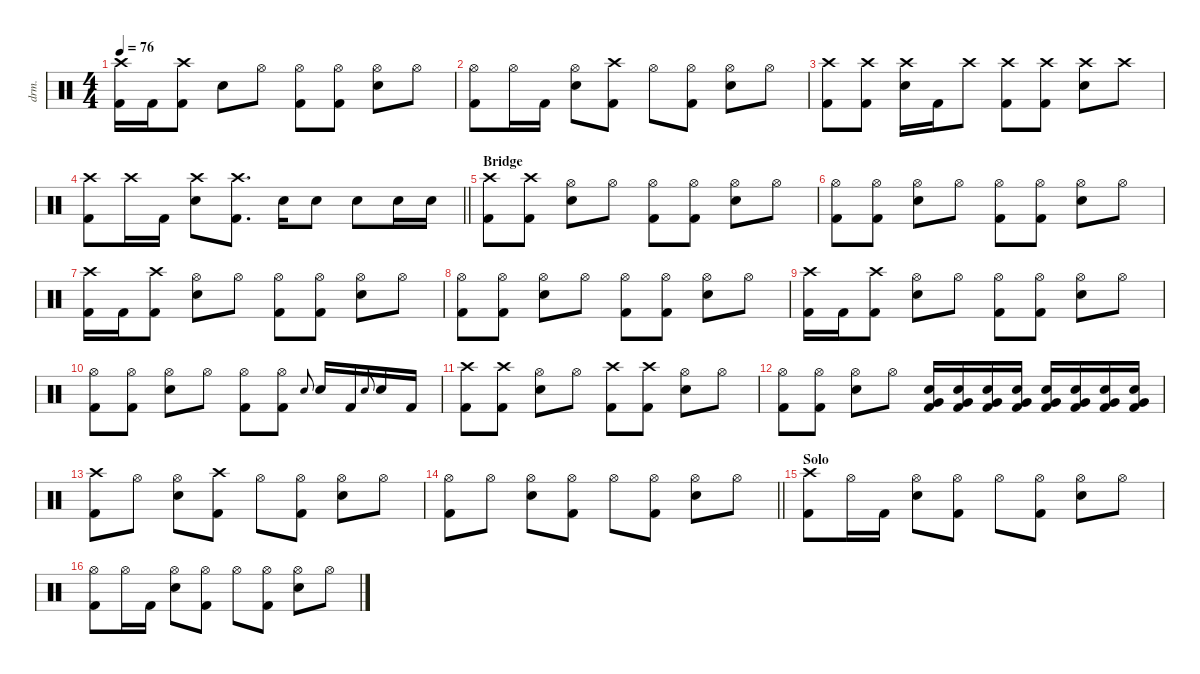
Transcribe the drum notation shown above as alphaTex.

\defaultSystemsLayout 4
\hideDynamics
\bracketExtendMode nobrackets
\otherSystemsTrackNameOrientation horizontal
\track ("Drums" "drm.") {instrument percussion}
\staff {score}
\articulation defaults
\ts (4 4)
\tempo 76
\clef neutral
\ks c
("Crash high (hit)" "Kick (hit) 2").16{dy f beam Down} "Kick (hit) 2".16{beam Down} ("Crash high (hit)" "Kick (hit) 2").8{beam Down} "Snare (hit) 2".8{beam Down} "Hi-Hat (open)".8{beam Down} ("Hi-Hat (open)" "Kick (hit) 2").8{beam Down} ("Hi-Hat (open)" "Kick (hit) 2").8{beam Down} ("Hi-Hat (open)" "Snare (hit) 2").8{beam Down} "Hi-Hat (open)".8{beam Down} |
("Hi-Hat (open)" "Kick (hit) 2").8{beam Down} "Hi-Hat (open)".16{beam Down} "Kick (hit) 2".16{beam Down} ("Hi-Hat (open)" "Snare (hit) 2").8{beam Down} ("Crash high (hit)" "Kick (hit) 2").8{beam Down} "Hi-Hat (open)".8{beam Down} ("Hi-Hat (open)" "Kick (hit) 2").8{beam Down} ("Hi-Hat (open)" "Snare (hit) 2").8{beam Down} "Hi-Hat (open)".8{beam Down} |
("Crash high (hit)" "Kick (hit) 2").8{beam Down} ("Crash high (hit)" "Kick (hit) 2").8{beam Down} ("Crash high (hit)" "Snare (hit) 2").16{beam Down} "Kick (hit) 2".16{beam Down} "Crash high (hit)".8{beam Down} ("Crash high (hit)" "Kick (hit) 2").8{beam Down} ("Crash high (hit)" "Kick (hit) 2").8{beam Down} ("Crash high (hit)" "Snare (hit) 2").8{beam Down} "Crash high (hit)".8{beam Down} |
\barLineRight lightlight
("Crash high (hit)" "Kick (hit) 2").8{beam Down} "Crash high (hit)".16{beam Down} "Kick (hit) 2".16{beam Down} ("Crash high (hit)" "Snare (hit) 2").8{beam Down} ("Crash high (hit)" "Kick (hit) 2").8{d beam Down} "Snare (hit) 2".16{beam Down} "Snare (hit) 2".8{beam Down} "Snare (hit) 2".8{beam Down} "Snare (hit) 2".16{beam Down} "Snare (hit) 2".16{beam Down} |
\section ("" "Bridge")
("Crash high (hit)" "Kick (hit) 2").8{beam Down} ("Crash high (hit)" "Kick (hit) 2").8{beam Down} ("Hi-Hat (open)" "Snare (hit) 2").8{beam Down} "Hi-Hat (open)".8{beam Down} ("Hi-Hat (open)" "Kick (hit) 2").8{beam Down} ("Hi-Hat (open)" "Kick (hit) 2").8{beam Down} ("Hi-Hat (open)" "Snare (hit) 2").8{beam Down} "Hi-Hat (open)".8{beam Down} |
("Hi-Hat (open)" "Kick (hit) 2").8{beam Down} ("Hi-Hat (open)" "Kick (hit) 2").8{beam Down} ("Hi-Hat (open)" "Snare (hit) 2").8{beam Down} "Hi-Hat (open)".8{beam Down} ("Hi-Hat (open)" "Kick (hit) 2").8{beam Down} ("Hi-Hat (open)" "Kick (hit) 2").8{beam Down} ("Hi-Hat (open)" "Snare (hit) 2").8{beam Down} "Hi-Hat (open)".8{beam Down} |
("Crash high (hit)" "Kick (hit) 2").16{beam Down} "Kick (hit) 2".16{beam Down} ("Crash high (hit)" "Kick (hit) 2").8{beam Down} ("Hi-Hat (open)" "Snare (hit) 2").8{beam Down} "Hi-Hat (open)".8{beam Down} ("Hi-Hat (open)" "Kick (hit) 2").8{beam Down} ("Hi-Hat (open)" "Kick (hit) 2").8{beam Down} ("Hi-Hat (open)" "Snare (hit) 2").8{beam Down} "Hi-Hat (open)".8{beam Down} |
("Hi-Hat (open)" "Kick (hit) 2").8{beam Down} ("Hi-Hat (open)" "Kick (hit) 2").8{beam Down} ("Hi-Hat (open)" "Snare (hit) 2").8{beam Down} "Hi-Hat (open)".8{beam Down} ("Hi-Hat (open)" "Kick (hit) 2").8{beam Down} ("Hi-Hat (open)" "Kick (hit) 2").8{beam Down} ("Hi-Hat (open)" "Snare (hit) 2").8{beam Down} "Hi-Hat (open)".8{beam Down} |
("Crash high (hit)" "Kick (hit) 2").16{beam Down} "Kick (hit) 2".16{beam Down} ("Crash high (hit)" "Kick (hit) 2").8{beam Down} ("Hi-Hat (open)" "Snare (hit) 2").8{beam Down} "Hi-Hat (open)".8{beam Down} ("Hi-Hat (open)" "Kick (hit) 2").8{beam Down} ("Hi-Hat (open)" "Kick (hit) 2").8{beam Down} ("Hi-Hat (open)" "Snare (hit) 2").8{beam Down} "Hi-Hat (open)".8{beam Down} |
("Hi-Hat (open)" "Kick (hit) 2").8{beam Down} ("Hi-Hat (open)" "Kick (hit) 2").8{beam Down} ("Hi-Hat (open)" "Snare (hit) 2").8{beam Down} "Hi-Hat (open)".8{beam Down} ("Hi-Hat (open)" "Kick (hit) 2").8{beam Down} ("Hi-Hat (open)" "Kick (hit) 2").8{beam Down} "Snare (hit) 2".8{gr onbeat dy mf beam Up} "Snare (hit) 2".16{dy f beam Up} "Kick (hit) 2".16{dy fff beam Up} "Snare (hit) 2".8{gr onbeat dy ff beam Up} "Snare (hit) 2".16{dy f beam Up} "Kick (hit) 2".16{dy fff beam Up} |
("Crash high (hit)" "Kick (hit) 2").8{dy f beam Down} ("Crash high (hit)" "Kick (hit) 2").8{beam Down} ("Hi-Hat (open)" "Snare (hit) 2").8{beam Down} "Hi-Hat (open)".8{beam Down} ("Crash high (hit)" "Kick (hit) 2").8{beam Down} ("Crash high (hit)" "Kick (hit) 2").8{beam Down} ("Hi-Hat (open)" "Snare (hit) 2").8{beam Down} "Hi-Hat (open)".8{beam Down} |
("Hi-Hat (open)" "Kick (hit) 2").8{beam Down} ("Hi-Hat (open)" "Kick (hit) 2").8{beam Down} ("Hi-Hat (open)" "Snare (hit) 2").8{beam Down} "Hi-Hat (open)".8{beam Down} ("Snare (hit) 2" "Very Low Tom (hit)" "Kick (hit) 2").16{dy p beam Up} ("Snare (hit) 2" "Very Low Tom (hit)" "Kick (hit) 2").16{beam Up} ("Snare (hit) 2" "Very Low Tom (hit)" "Kick (hit) 2").16{dy mp beam Up} ("Snare (hit) 2" "Very Low Tom (hit)" "Kick (hit) 2").16{dy mf beam Up} ("Snare (hit) 2" "Very Low Tom (hit)" "Kick (hit) 2").16{beam Up} ("Snare (hit) 2" "Very Low Tom (hit)" "Kick (hit) 2").16{dy f beam Up} ("Snare (hit) 2" "Very Low Tom (hit)" "Kick (hit) 2").16{dy ff beam Up} ("Snare (hit) 2" "Very Low Tom (hit)" "Kick (hit) 2").16{dy fff beam Up} |
("Crash high (hit)" "Kick (hit) 2").8{beam Down} "Hi-Hat (open)".8{beam Down} ("Hi-Hat (open)" "Snare (hit) 2").8{beam Down} ("Crash high (hit)" "Kick (hit) 2").8{beam Down} "Hi-Hat (open)".8{dy f beam Down} ("Hi-Hat (open)" "Kick (hit) 2").8{beam Down} ("Hi-Hat (open)" "Snare (hit) 2").8{beam Down} "Hi-Hat (open)".8{beam Down} |
\barLineRight lightlight
("Hi-Hat (open)" "Kick (hit) 2").8{beam Down} "Hi-Hat (open)".8{beam Down} ("Hi-Hat (open)" "Snare (hit) 2").8{beam Down} ("Hi-Hat (open)" "Kick (hit) 2").8{beam Down} "Hi-Hat (open)".8{beam Down} ("Hi-Hat (open)" "Kick (hit) 2").8{beam Down} ("Hi-Hat (open)" "Snare (hit) 2").8{beam Down} "Hi-Hat (open)".8{beam Down} |
\section ("" "Solo")
("Crash high (hit)" "Kick (hit) 2").8{dy fff beam Down} "Hi-Hat (open)".16{dy f beam Down} "Kick (hit) 2".16{dy fff beam Down} ("Hi-Hat (open)" "Snare (hit) 2").8{dy f beam Down} ("Hi-Hat (open)" "Kick (hit) 2").8{beam Down} "Hi-Hat (open)".8{beam Down} ("Hi-Hat (open)" "Kick (hit) 2").8{beam Down} ("Hi-Hat (open)" "Snare (hit) 2").8{beam Down} "Hi-Hat (open)".8{beam Down} |
("Hi-Hat (open)" "Kick (hit) 2").8{beam Down} "Hi-Hat (open)".16{beam Down} "Kick (hit) 2".16{dy fff beam Down} ("Hi-Hat (open)" "Snare (hit) 2").8{dy f beam Down} ("Hi-Hat (open)" "Kick (hit) 2").8{beam Down} "Hi-Hat (open)".8{beam Down} ("Hi-Hat (open)" "Kick (hit) 2").8{beam Down} ("Hi-Hat (open)" "Snare (hit) 2").8{beam Down} "Hi-Hat (open)".8{beam Down}
